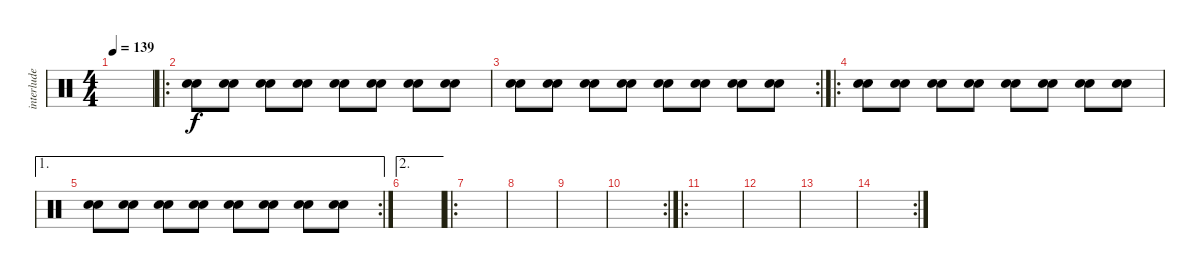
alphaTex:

\track ("interlude claps." "interlude ") {instrument percussion}
\staff {score}
\articulation defaults
\ts (4 4)
\tempo 139
\clef neutral
\ks c
|
\ro
("Hand Clap (hit)" "Hand Clap (hit)").8 ("Hand Clap (hit)" "Hand Clap (hit)").8 ("Hand Clap (hit)" "Hand Clap (hit)").8 ("Hand Clap (hit)" "Hand Clap (hit)").8 ("Hand Clap (hit)" "Hand Clap (hit)").8 ("Hand Clap (hit)" "Hand Clap (hit)").8 ("Hand Clap (hit)" "Hand Clap (hit)").8 ("Hand Clap (hit)" "Hand Clap (hit)").8 |
\rc 2
("Hand Clap (hit)" "Hand Clap (hit)").8 ("Hand Clap (hit)" "Hand Clap (hit)").8 ("Hand Clap (hit)" "Hand Clap (hit)").8 ("Hand Clap (hit)" "Hand Clap (hit)").8 ("Hand Clap (hit)" "Hand Clap (hit)").8 ("Hand Clap (hit)" "Hand Clap (hit)").8 ("Hand Clap (hit)" "Hand Clap (hit)").8 ("Hand Clap (hit)" "Hand Clap (hit)").8 |
\ro
("Hand Clap (hit)" "Hand Clap (hit)").8 ("Hand Clap (hit)" "Hand Clap (hit)").8 ("Hand Clap (hit)" "Hand Clap (hit)").8 ("Hand Clap (hit)" "Hand Clap (hit)").8 ("Hand Clap (hit)" "Hand Clap (hit)").8 ("Hand Clap (hit)" "Hand Clap (hit)").8 ("Hand Clap (hit)" "Hand Clap (hit)").8 ("Hand Clap (hit)" "Hand Clap (hit)").8 |
\ae 1
\rc 2
("Hand Clap (hit)" "Hand Clap (hit)").8 ("Hand Clap (hit)" "Hand Clap (hit)").8 ("Hand Clap (hit)" "Hand Clap (hit)").8 ("Hand Clap (hit)" "Hand Clap (hit)").8 ("Hand Clap (hit)" "Hand Clap (hit)").8 ("Hand Clap (hit)" "Hand Clap (hit)").8 ("Hand Clap (hit)" "Hand Clap (hit)").8 ("Hand Clap (hit)" "Hand Clap (hit)").8 |
\ae 2
|
\ro
|
|
|
\rc 2
|
\ro
|
|
|
\rc 2
